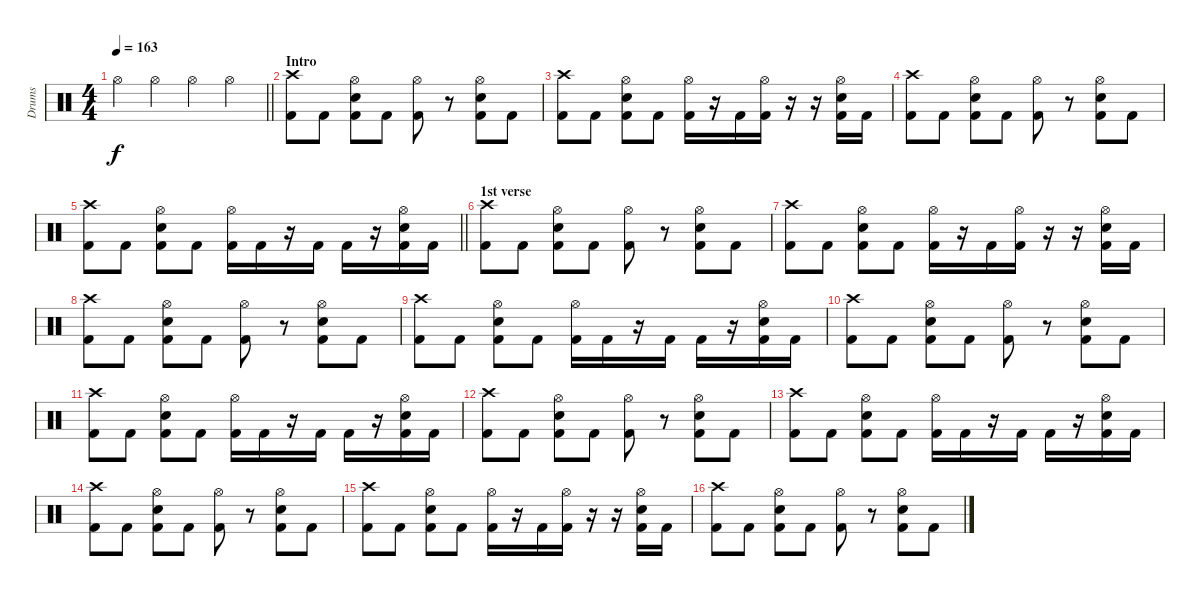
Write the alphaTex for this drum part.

\track ("Drums" "Drums") {instrument percussion}
\staff {score}
\articulation defaults
\ts (4 4)
\tempo 163
\clef neutral
\barLineRight lightlight
\ks c "Hi-Hat (open)".4{dy f} "Hi-Hat (open)".4 "Hi-Hat (open)".4 "Hi-Hat (open)".4
|
\section ("" "Intro")
("Crash high (hit)" "Kick (hit) 2").8 "Kick (hit) 2".8 ("Hi-Hat (open)" "Kick (hit) 2" "Snare (hit) 2").8 "Kick (hit) 2".8 ("Hi-Hat (open)" "Kick (hit) 2").8 r.8 ("Hi-Hat (open)" "Kick (hit) 2" "Snare (hit) 2").8 "Kick (hit) 2".8 |
("Crash high (hit)" "Kick (hit) 2").8 "Kick (hit) 2".8 ("Hi-Hat (open)" "Kick (hit) 2" "Snare (hit) 2").8 "Kick (hit) 2".8 ("Hi-Hat (open)" "Kick (hit) 2").16 r.16 "Kick (hit) 2".16 ("Hi-Hat (open)" "Kick (hit) 2").16 r.16 r.16 ("Hi-Hat (open)" "Kick (hit) 2" "Snare (hit) 2").16 "Kick (hit) 2".16 |
("Crash high (hit)" "Kick (hit) 2").8 "Kick (hit) 2".8 ("Hi-Hat (open)" "Kick (hit) 2" "Snare (hit) 2").8 "Kick (hit) 2".8 ("Hi-Hat (open)" "Kick (hit) 2").8 r.8 ("Hi-Hat (open)" "Kick (hit) 2" "Snare (hit) 2").8 "Kick (hit) 2".8 |
\barLineRight lightlight
("Crash high (hit)" "Kick (hit) 2").8 "Kick (hit) 2".8 ("Hi-Hat (open)" "Kick (hit) 2" "Snare (hit) 2").8 "Kick (hit) 2".8 ("Hi-Hat (open)" "Kick (hit) 2").16 "Kick (hit) 2".16 r.16 "Kick (hit) 2".16 "Kick (hit) 2".16 r.16 ("Hi-Hat (open)" "Kick (hit) 2" "Snare (hit) 2").16 "Kick (hit) 2".16 |
\section ("" "1st verse")
("Crash high (hit)" "Kick (hit) 2").8 "Kick (hit) 2".8 ("Hi-Hat (open)" "Kick (hit) 2" "Snare (hit) 2").8 "Kick (hit) 2".8 ("Hi-Hat (open)" "Kick (hit) 2").8 r.8 ("Hi-Hat (open)" "Kick (hit) 2" "Snare (hit) 2").8 "Kick (hit) 2".8 |
("Crash high (hit)" "Kick (hit) 2").8 "Kick (hit) 2".8 ("Hi-Hat (open)" "Kick (hit) 2" "Snare (hit) 2").8 "Kick (hit) 2".8 ("Hi-Hat (open)" "Kick (hit) 2").16 r.16 "Kick (hit) 2".16 ("Hi-Hat (open)" "Kick (hit) 2").16 r.16 r.16 ("Hi-Hat (open)" "Kick (hit) 2" "Snare (hit) 2").16 "Kick (hit) 2".16 |
("Crash high (hit)" "Kick (hit) 2").8 "Kick (hit) 2".8 ("Hi-Hat (open)" "Kick (hit) 2" "Snare (hit) 2").8 "Kick (hit) 2".8 ("Hi-Hat (open)" "Kick (hit) 2").8 r.8 ("Hi-Hat (open)" "Kick (hit) 2" "Snare (hit) 2").8 "Kick (hit) 2".8 |
("Crash high (hit)" "Kick (hit) 2").8 "Kick (hit) 2".8 ("Hi-Hat (open)" "Kick (hit) 2" "Snare (hit) 2").8 "Kick (hit) 2".8 ("Hi-Hat (open)" "Kick (hit) 2").16 "Kick (hit) 2".16 r.16 "Kick (hit) 2".16 "Kick (hit) 2".16 r.16 ("Hi-Hat (open)" "Kick (hit) 2" "Snare (hit) 2").16 "Kick (hit) 2".16 |
("Crash high (hit)" "Kick (hit) 2").8 "Kick (hit) 2".8 ("Hi-Hat (open)" "Kick (hit) 2" "Snare (hit) 2").8 "Kick (hit) 2".8 ("Hi-Hat (open)" "Kick (hit) 2").8 r.8 ("Hi-Hat (open)" "Kick (hit) 2" "Snare (hit) 2").8 "Kick (hit) 2".8 |
("Crash high (hit)" "Kick (hit) 2").8 "Kick (hit) 2".8 ("Hi-Hat (open)" "Kick (hit) 2" "Snare (hit) 2").8 "Kick (hit) 2".8 ("Hi-Hat (open)" "Kick (hit) 2").16 "Kick (hit) 2".16 r.16 "Kick (hit) 2".16 "Kick (hit) 2".16 r.16 ("Hi-Hat (open)" "Kick (hit) 2" "Snare (hit) 2").16 "Kick (hit) 2".16 |
("Crash high (hit)" "Kick (hit) 2").8 "Kick (hit) 2".8 ("Hi-Hat (open)" "Kick (hit) 2" "Snare (hit) 2").8 "Kick (hit) 2".8 ("Hi-Hat (open)" "Kick (hit) 2").8 r.8 ("Hi-Hat (open)" "Kick (hit) 2" "Snare (hit) 2").8 "Kick (hit) 2".8 |
("Crash high (hit)" "Kick (hit) 2").8 "Kick (hit) 2".8 ("Hi-Hat (open)" "Kick (hit) 2" "Snare (hit) 2").8 "Kick (hit) 2".8 ("Hi-Hat (open)" "Kick (hit) 2").16 "Kick (hit) 2".16 r.16 "Kick (hit) 2".16 "Kick (hit) 2".16 r.16 ("Hi-Hat (open)" "Kick (hit) 2" "Snare (hit) 2").16 "Kick (hit) 2".16 |
("Crash high (hit)" "Kick (hit) 2").8 "Kick (hit) 2".8 ("Hi-Hat (open)" "Kick (hit) 2" "Snare (hit) 2").8 "Kick (hit) 2".8 ("Hi-Hat (open)" "Kick (hit) 2").8 r.8 ("Hi-Hat (open)" "Kick (hit) 2" "Snare (hit) 2").8 "Kick (hit) 2".8 |
("Crash high (hit)" "Kick (hit) 2").8 "Kick (hit) 2".8 ("Hi-Hat (open)" "Kick (hit) 2" "Snare (hit) 2").8 "Kick (hit) 2".8 ("Hi-Hat (open)" "Kick (hit) 2").16 r.16 "Kick (hit) 2".16 ("Hi-Hat (open)" "Kick (hit) 2").16 r.16 r.16 ("Hi-Hat (open)" "Kick (hit) 2" "Snare (hit) 2").16 "Kick (hit) 2".16 |
("Crash high (hit)" "Kick (hit) 2").8 "Kick (hit) 2".8 ("Hi-Hat (open)" "Kick (hit) 2" "Snare (hit) 2").8 "Kick (hit) 2".8 ("Hi-Hat (open)" "Kick (hit) 2").8 r.8 ("Hi-Hat (open)" "Kick (hit) 2" "Snare (hit) 2").8 "Kick (hit) 2".8
